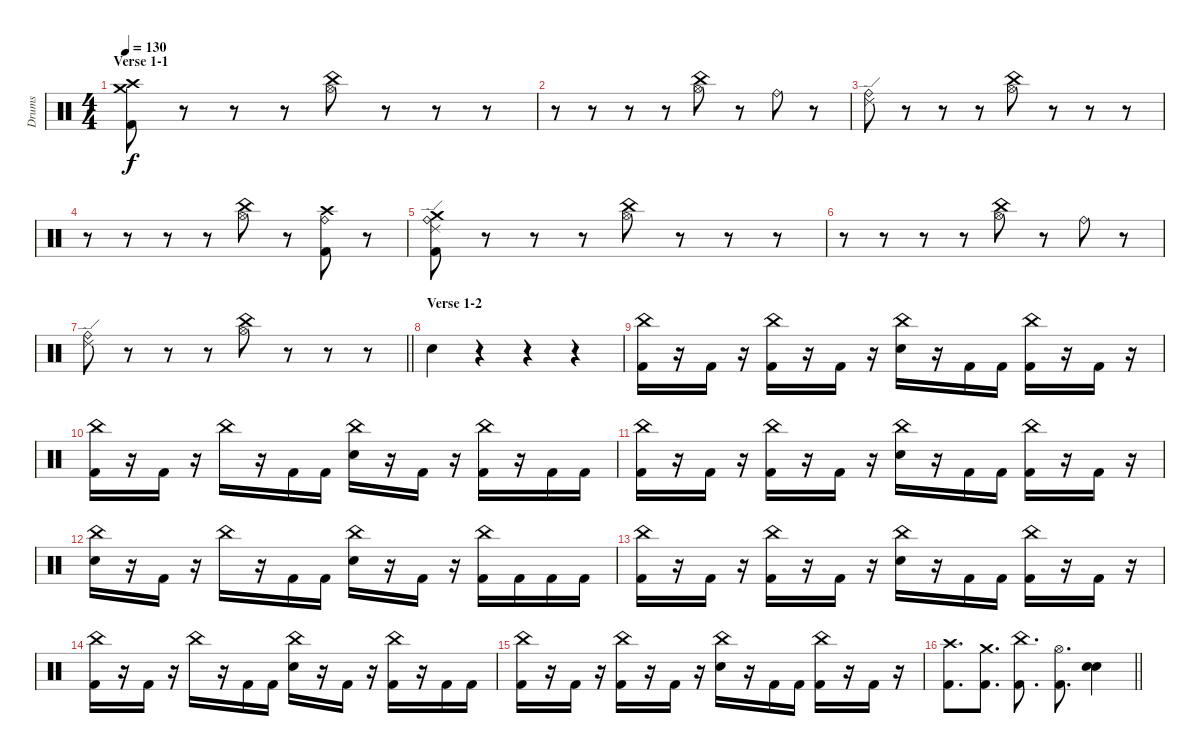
\track ("Drums" "Drums") {instrument percussion}
\staff {score}
\articulation defaults
\ts (4 4)
\section ("" "Verse 1-1")
\tempo 130
\clef neutral
\ks c
("Crash high (hit)" "Crash medium (hit)" "Kick (hit) 2").8{dy f} r.8 r.8 r.8 ("China (hit)" "Hi-Hat (open)").8 r.8 r.8 r.8 |
r.8 r.8 r.8 r.8 ("China (hit)" "Hi-Hat (open)").8 r.8 "Ride (bell)".8 r.8 |
("Ride (edge) 2" "Ride (bell)").8 r.8 r.8 r.8 ("China (hit)" "Hi-Hat (open)").8 r.8 r.8 r.8 |
r.8 r.8 r.8 r.8 ("China (hit)" "Hi-Hat (open)").8 r.8 ("Crash high (hit)" "Ride (bell)" "Kick (hit) 2").8 r.8 |
("Crash medium (hit)" "Ride (edge) 2" "Ride (bell)" "Kick (hit) 2").8 r.8 r.8 r.8 ("China (hit)" "Hi-Hat (open)").8 r.8 r.8 r.8 |
r.8 r.8 r.8 r.8 ("China (hit)" "Hi-Hat (open)").8 r.8 "Ride (bell)".8 r.8 |
\barLineRight lightlight
("Ride (edge) 2" "Ride (bell)").8 r.8 r.8 r.8 ("China (hit)" "Hi-Hat (open)").8 r.8 r.8 r.8 |
\section ("" "Verse 1-2")
"Electric Snare (hit)".4 r.4 r.4 r.4 |
("China (hit)" "Kick (hit) 2").16 r.16 "Kick (hit) 2".16 r.16 ("China (hit)" "Kick (hit) 2").16 r.16 "Kick (hit) 2".16 r.16 ("China (hit)" "Electric Snare (hit)").16 r.16 "Kick (hit) 2".16 "Kick (hit) 2".16 ("China (hit)" "Kick (hit) 2").16 r.16 "Kick (hit) 2".16 r.16 |
("China (hit)" "Kick (hit) 2").16 r.16 "Kick (hit) 2".16 r.16 "China (hit)".16 r.16 "Kick (hit) 2".16 "Kick (hit) 2".16 ("China (hit)" "Electric Snare (hit)").16 r.16 "Kick (hit) 2".16 r.16 ("China (hit)" "Kick (hit) 2").16 r.16 "Kick (hit) 2".16 "Kick (hit) 2".16 |
("China (hit)" "Kick (hit) 2").16 r.16 "Kick (hit) 2".16 r.16 ("China (hit)" "Kick (hit) 2").16 r.16 "Kick (hit) 2".16 r.16 ("China (hit)" "Electric Snare (hit)").16 r.16 "Kick (hit) 2".16 "Kick (hit) 2".16 ("China (hit)" "Kick (hit) 2").16 r.16 "Kick (hit) 2".16 r.16 |
("China (hit)" "Electric Snare (hit)").16 r.16 "Kick (hit) 2".16 r.16 "China (hit)".16 r.16 "Kick (hit) 2".16 "Kick (hit) 2".16 ("China (hit)" "Electric Snare (hit)").16 r.16 "Kick (hit) 2".16 r.16 ("China (hit)" "Kick (hit) 2").16 "Kick (hit) 2".16 "Kick (hit) 2".16 "Kick (hit) 2".16 |
("China (hit)" "Kick (hit) 2").16 r.16 "Kick (hit) 2".16 r.16 ("China (hit)" "Kick (hit) 2").16 r.16 "Kick (hit) 2".16 r.16 ("China (hit)" "Electric Snare (hit)").16 r.16 "Kick (hit) 2".16 "Kick (hit) 2".16 ("China (hit)" "Kick (hit) 2").16 r.16 "Kick (hit) 2".16 r.16 |
("China (hit)" "Kick (hit) 2").16 r.16 "Kick (hit) 2".16 r.16 "China (hit)".16 r.16 "Kick (hit) 2".16 "Kick (hit) 2".16 ("China (hit)" "Electric Snare (hit)").16 r.16 "Kick (hit) 2".16 r.16 ("China (hit)" "Kick (hit) 2").16 r.16 "Kick (hit) 2".16 "Kick (hit) 2".16 |
("China (hit)" "Kick (hit) 2").16 r.16 "Kick (hit) 2".16 r.16 ("China (hit)" "Kick (hit) 2").16 r.16 "Kick (hit) 2".16 r.16 ("China (hit)" "Electric Snare (hit)").16 r.16 "Kick (hit) 2".16 "Kick (hit) 2".16 ("China (hit)" "Kick (hit) 2").16 r.16 "Kick (hit) 2".16 r.16 |
\barLineRight lightlight
("Crash high (hit)" "Kick (hit) 2").8{d} ("Crash medium (hit)" "Kick (hit) 2").8{d} ("China (hit)" "Kick (hit) 2").8{d} ("Hi-Hat (open)" "Kick (hit) 2").8{d} ("Electric Snare (hit)" "Electric Snare (hit)").4
